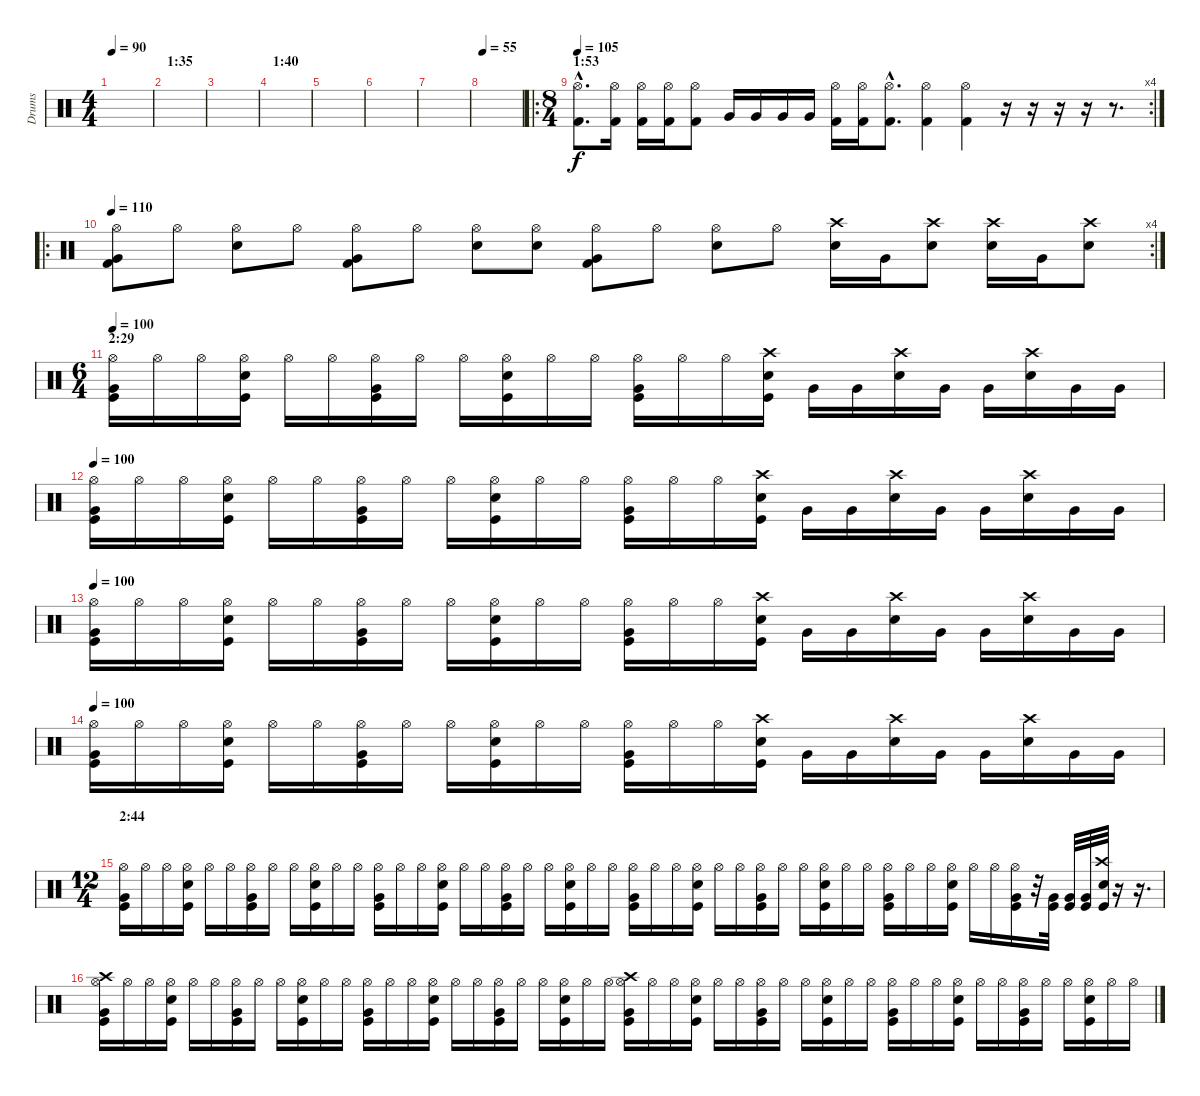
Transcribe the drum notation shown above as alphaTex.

\track ("Drums" "Drums") {instrument percussion}
\staff {score}
\articulation defaults
\ts (4 4)
\tempo 90
\clef neutral
\ks c
|
\section ("" "1:35")
|
|
\section ("" "1:40")
|
|
|
|
\tempo 55
|
\ro
\rc 4
\ts (8 4)
\section ("" "1:53")
\tempo 105
("Hi-Hat (open)"{hac} "Kick (hit) 2"{hac}).8{d} ("Hi-Hat (open)" "Kick (hit) 2").16 ("Hi-Hat (open)" "Kick (hit) 2").16 ("Hi-Hat (open)" "Kick (hit) 2").16 ("Hi-Hat (open)" "Kick (hit) 2").8 "Very Low Tom (hit)".16 "Very Low Tom (hit)".16 "Very Low Tom (hit)".16 "Very Low Tom (hit)".16 ("Hi-Hat (open)" "Kick (hit) 2").16 ("Hi-Hat (open)" "Kick (hit) 2").16 ("Hi-Hat (open)"{hac} "Kick (hit) 2"{hac}).8{d} ("Hi-Hat (open)" "Kick (hit) 2").4 ("Hi-Hat (open)" "Kick (hit) 2").4 r.16 r.16 r.16 r.16 r.8{d} |
\ro
\rc 4
\tempo 110
("Hi-Hat (open)" "Very Low Tom (hit)" "Kick (hit) 2").8 "Hi-Hat (open)".8 ("Hi-Hat (open)" "Snare (hit) 2").8 "Hi-Hat (open)".8 ("Hi-Hat (open)" "Very Low Tom (hit)" "Kick (hit) 2").8 "Hi-Hat (open)".8 ("Hi-Hat (open)" "Snare (hit) 2").8 ("Hi-Hat (open)" "Snare (hit) 2").8 ("Hi-Hat (open)" "Very Low Tom (hit)" "Kick (hit) 2").8 "Hi-Hat (open)".8 ("Hi-Hat (open)" "Snare (hit) 2").8 "Hi-Hat (open)".8 ("Crash high (hit)" "Snare (hit) 2").16 "Very Low Tom (hit)".16 ("Crash high (hit)" "Snare (hit) 2").8 ("Crash high (hit)" "Snare (hit) 2").16 "Very Low Tom (hit)".16 ("Crash high (hit)" "Snare (hit) 2").8 |
\ts (6 4)
\section ("" "2:29")
\tempo 100
("Hi-Hat (open)" "Very Low Tom (hit)" "Kick (hit)").16 "Hi-Hat (open)".16 "Hi-Hat (open)".16 ("Hi-Hat (open)" "Snare (hit) 2" "Kick (hit)").16 "Hi-Hat (open)".16 "Hi-Hat (open)".16 ("Hi-Hat (open)" "Very Low Tom (hit)" "Kick (hit)").16 "Hi-Hat (open)".16 "Hi-Hat (open)".16 ("Hi-Hat (open)" "Snare (hit) 2" "Kick (hit)").16 "Hi-Hat (open)".16 "Hi-Hat (open)".16 ("Hi-Hat (open)" "Very Low Tom (hit)" "Kick (hit)").16 "Hi-Hat (open)".16 "Hi-Hat (open)".16 ("Crash high (hit)" "Snare (hit) 2" "Kick (hit)").16 "Very Low Tom (hit)".16 "Very Low Tom (hit)".16 ("Crash high (hit)" "Snare (hit) 2").16 "Very Low Tom (hit)".16 "Very Low Tom (hit)".16 ("Crash high (hit)" "Snare (hit) 2").16 "Very Low Tom (hit)".16 "Very Low Tom (hit)".16 |
\tempo 100
("Hi-Hat (open)" "Very Low Tom (hit)" "Kick (hit)").16 "Hi-Hat (open)".16 "Hi-Hat (open)".16 ("Hi-Hat (open)" "Snare (hit) 2" "Kick (hit)").16 "Hi-Hat (open)".16 "Hi-Hat (open)".16 ("Hi-Hat (open)" "Very Low Tom (hit)" "Kick (hit)").16 "Hi-Hat (open)".16 "Hi-Hat (open)".16 ("Hi-Hat (open)" "Snare (hit) 2" "Kick (hit)").16 "Hi-Hat (open)".16 "Hi-Hat (open)".16 ("Hi-Hat (open)" "Very Low Tom (hit)" "Kick (hit)").16 "Hi-Hat (open)".16 "Hi-Hat (open)".16 ("Crash high (hit)" "Snare (hit) 2" "Kick (hit)").16 "Very Low Tom (hit)".16 "Very Low Tom (hit)".16 ("Crash high (hit)" "Snare (hit) 2").16 "Very Low Tom (hit)".16 "Very Low Tom (hit)".16 ("Crash high (hit)" "Snare (hit) 2").16 "Very Low Tom (hit)".16 "Very Low Tom (hit)".16 |
\tempo 100
("Hi-Hat (open)" "Very Low Tom (hit)" "Kick (hit)").16 "Hi-Hat (open)".16 "Hi-Hat (open)".16 ("Hi-Hat (open)" "Snare (hit) 2" "Kick (hit)").16 "Hi-Hat (open)".16 "Hi-Hat (open)".16 ("Hi-Hat (open)" "Very Low Tom (hit)" "Kick (hit)").16 "Hi-Hat (open)".16 "Hi-Hat (open)".16 ("Hi-Hat (open)" "Snare (hit) 2" "Kick (hit)").16 "Hi-Hat (open)".16 "Hi-Hat (open)".16 ("Hi-Hat (open)" "Very Low Tom (hit)" "Kick (hit)").16 "Hi-Hat (open)".16 "Hi-Hat (open)".16 ("Crash high (hit)" "Snare (hit) 2" "Kick (hit)").16 "Very Low Tom (hit)".16 "Very Low Tom (hit)".16 ("Crash high (hit)" "Snare (hit) 2").16 "Very Low Tom (hit)".16 "Very Low Tom (hit)".16 ("Crash high (hit)" "Snare (hit) 2").16 "Very Low Tom (hit)".16 "Very Low Tom (hit)".16 |
\tempo 100
("Hi-Hat (open)" "Very Low Tom (hit)" "Kick (hit)").16 "Hi-Hat (open)".16 "Hi-Hat (open)".16 ("Hi-Hat (open)" "Snare (hit) 2" "Kick (hit)").16 "Hi-Hat (open)".16 "Hi-Hat (open)".16 ("Hi-Hat (open)" "Very Low Tom (hit)" "Kick (hit)").16 "Hi-Hat (open)".16 "Hi-Hat (open)".16 ("Hi-Hat (open)" "Snare (hit) 2" "Kick (hit)").16 "Hi-Hat (open)".16 "Hi-Hat (open)".16 ("Hi-Hat (open)" "Very Low Tom (hit)" "Kick (hit)").16 "Hi-Hat (open)".16 "Hi-Hat (open)".16 ("Crash high (hit)" "Snare (hit) 2" "Kick (hit)").16 "Very Low Tom (hit)".16 "Very Low Tom (hit)".16 ("Crash high (hit)" "Snare (hit) 2").16 "Very Low Tom (hit)".16 "Very Low Tom (hit)".16 ("Crash high (hit)" "Snare (hit) 2").16 "Very Low Tom (hit)".16 "Very Low Tom (hit)".16 |
\ts (12 4)
\section ("" "2:44")
("Hi-Hat (open)" "Very Low Tom (hit)" "Kick (hit)").16 "Hi-Hat (open)".16 "Hi-Hat (open)".16 ("Hi-Hat (open)" "Snare (hit) 2" "Kick (hit)").16 "Hi-Hat (open)".16 "Hi-Hat (open)".16 ("Hi-Hat (open)" "Very Low Tom (hit)" "Kick (hit)").16 "Hi-Hat (open)".16 "Hi-Hat (open)".16 ("Hi-Hat (open)" "Snare (hit) 2" "Kick (hit)").16 "Hi-Hat (open)".16 "Hi-Hat (open)".16 ("Hi-Hat (open)" "Very Low Tom (hit)" "Kick (hit)").16 "Hi-Hat (open)".16 "Hi-Hat (open)".16 ("Hi-Hat (open)" "Snare (hit) 2" "Kick (hit)").16 "Hi-Hat (open)".16 "Hi-Hat (open)".16 ("Hi-Hat (open)" "Very Low Tom (hit)" "Kick (hit)").16 "Hi-Hat (open)".16 "Hi-Hat (open)".16 ("Hi-Hat (open)" "Snare (hit) 2" "Kick (hit)").16 "Hi-Hat (open)".16 "Hi-Hat (open)".16 ("Hi-Hat (open)" "Very Low Tom (hit)" "Kick (hit)").16 "Hi-Hat (open)".16 "Hi-Hat (open)".16 ("Hi-Hat (open)" "Snare (hit) 2" "Kick (hit)").16 "Hi-Hat (open)".16 "Hi-Hat (open)".16 ("Hi-Hat (open)" "Very Low Tom (hit)" "Kick (hit)").16 "Hi-Hat (open)".16 "Hi-Hat (open)".16 ("Hi-Hat (open)" "Snare (hit) 2" "Kick (hit)").16 "Hi-Hat (open)".16 "Hi-Hat (open)".16 ("Hi-Hat (open)" "Very Low Tom (hit)" "Kick (hit)").16 "Hi-Hat (open)".16 "Hi-Hat (open)".16 ("Hi-Hat (open)" "Snare (hit) 2" "Kick (hit)").16 "Hi-Hat (open)".16 "Hi-Hat (open)".16 ("Hi-Hat (open)" "Very Low Tom (hit)" "Kick (hit)").16 r.32 ("Very Low Tom (hit)" "Kick (hit)").32 ("Very Low Tom (hit)" "Kick (hit)").32 ("Very Low Tom (hit)" "Kick (hit)").32 ("Crash high (hit)" "Snare (hit) 2" "Kick (hit)").32 r.16 r.16{d} |
("Hi-Hat (open)" "Crash high (hit)" "Very Low Tom (hit)" "Kick (hit)").16 "Hi-Hat (open)".16 "Hi-Hat (open)".16 ("Hi-Hat (open)" "Snare (hit) 2" "Kick (hit)").16 "Hi-Hat (open)".16 "Hi-Hat (open)".16 ("Hi-Hat (open)" "Very Low Tom (hit)" "Kick (hit)").16 "Hi-Hat (open)".16 "Hi-Hat (open)".16 ("Hi-Hat (open)" "Snare (hit) 2" "Kick (hit)").16 "Hi-Hat (open)".16 "Hi-Hat (open)".16 ("Hi-Hat (open)" "Very Low Tom (hit)" "Kick (hit)").16 "Hi-Hat (open)".16 "Hi-Hat (open)".16 ("Hi-Hat (open)" "Snare (hit) 2" "Kick (hit)").16 "Hi-Hat (open)".16 "Hi-Hat (open)".16 ("Hi-Hat (open)" "Very Low Tom (hit)" "Kick (hit)").16 "Hi-Hat (open)".16 "Hi-Hat (open)".16 ("Hi-Hat (open)" "Snare (hit) 2" "Kick (hit)").16 "Hi-Hat (open)".16 "Hi-Hat (open)".16 ("Hi-Hat (open)" "Crash high (hit)" "Very Low Tom (hit)" "Kick (hit)").16 "Hi-Hat (open)".16 "Hi-Hat (open)".16 ("Hi-Hat (open)" "Snare (hit) 2" "Kick (hit)").16 "Hi-Hat (open)".16 "Hi-Hat (open)".16 ("Hi-Hat (open)" "Very Low Tom (hit)" "Kick (hit)").16 "Hi-Hat (open)".16 "Hi-Hat (open)".16 ("Hi-Hat (open)" "Snare (hit) 2" "Kick (hit)").16 "Hi-Hat (open)".16 "Hi-Hat (open)".16 ("Hi-Hat (open)" "Very Low Tom (hit)" "Kick (hit)").16 "Hi-Hat (open)".16 "Hi-Hat (open)".16 ("Hi-Hat (open)" "Snare (hit) 2" "Kick (hit)").16 "Hi-Hat (open)".16 "Hi-Hat (open)".16 ("Hi-Hat (open)" "Very Low Tom (hit)" "Kick (hit)").16 "Hi-Hat (open)".16 "Hi-Hat (open)".16 ("Hi-Hat (open)" "Snare (hit) 2" "Kick (hit)").16 "Hi-Hat (open)".16 "Hi-Hat (open)".16
